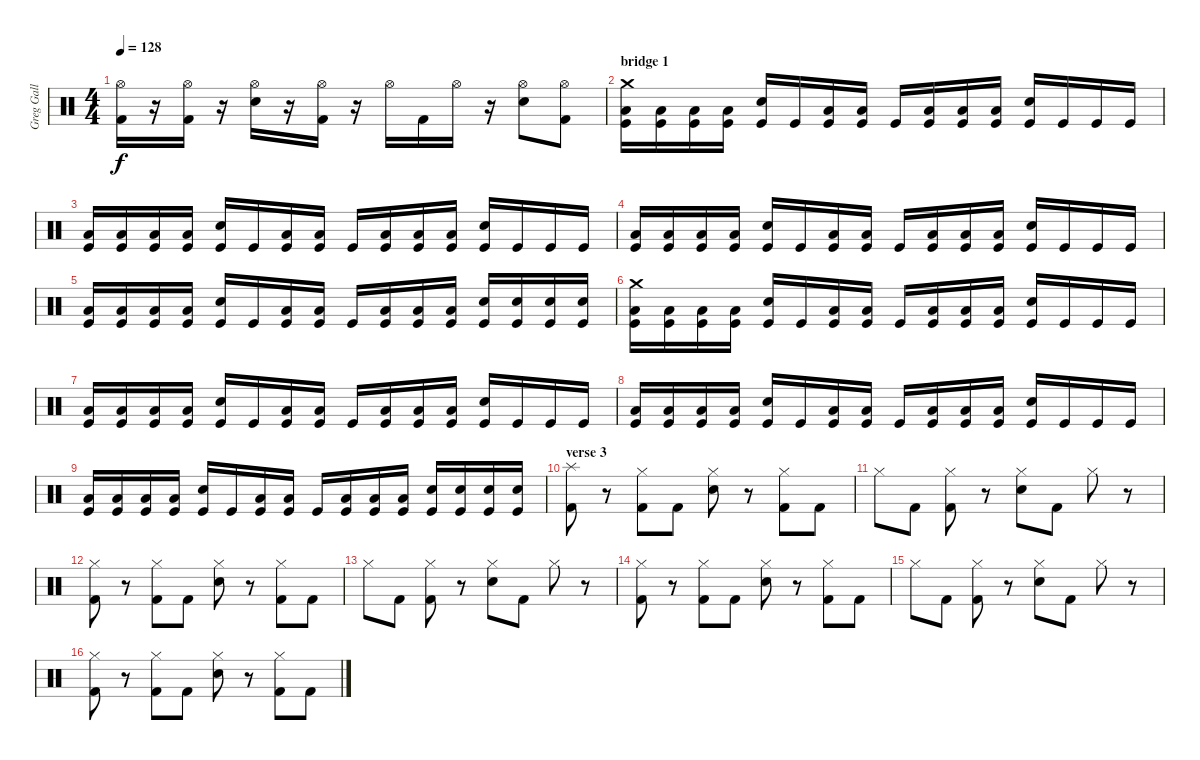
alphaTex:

\track ("Greg Gall" "Greg Gall") {instrument percussion}
\staff {score}
\articulation defaults
\ts (4 4)
\tempo 128
\clef neutral
\ks c
("Hi-Hat (open)" "Kick (hit) 2").16{dy f} r.16 ("Hi-Hat (open)" "Kick (hit) 2").16 r.16 ("Hi-Hat (open)" "Electric Snare (hit)").16 r.16 ("Hi-Hat (open)" "Kick (hit) 2").16 r.16 "Hi-Hat (open)".16 "Kick (hit) 2".16 "Hi-Hat (open)".16 r.16 ("Hi-Hat (open)" "Electric Snare (hit)").8 ("Hi-Hat (open)" "Kick (hit) 2").8 |
\section ("" "bridge 1")
("Crash medium (hit)" "Low Tom (hit)" "Kick (hit)").16 ("Low Tom (hit)" "Kick (hit)").16 ("Low Tom (hit)" "Kick (hit)").16 ("Low Tom (hit)" "Kick (hit)").16 ("Electric Snare (hit)" "Kick (hit)").16 "Kick (hit)".16 ("Low Tom (hit)" "Kick (hit)").16 ("Low Tom (hit)" "Kick (hit)").16 "Kick (hit)".16 ("Low Tom (hit)" "Kick (hit)").16 ("Low Tom (hit)" "Kick (hit)").16 ("Low Tom (hit)" "Kick (hit)").16 ("Electric Snare (hit)" "Kick (hit)").16 "Kick (hit)".16 "Kick (hit)".16 "Kick (hit)".16 |
("Low Tom (hit)" "Kick (hit)").16 ("Low Tom (hit)" "Kick (hit)").16 ("Low Tom (hit)" "Kick (hit)").16 ("Low Tom (hit)" "Kick (hit)").16 ("Electric Snare (hit)" "Kick (hit)").16 "Kick (hit)".16 ("Low Tom (hit)" "Kick (hit)").16 ("Low Tom (hit)" "Kick (hit)").16 "Kick (hit)".16 ("Low Tom (hit)" "Kick (hit)").16 ("Low Tom (hit)" "Kick (hit)").16 ("Low Tom (hit)" "Kick (hit)").16 ("Electric Snare (hit)" "Kick (hit)").16 "Kick (hit)".16 "Kick (hit)".16 "Kick (hit)".16 |
("Low Tom (hit)" "Kick (hit)").16 ("Low Tom (hit)" "Kick (hit)").16 ("Low Tom (hit)" "Kick (hit)").16 ("Low Tom (hit)" "Kick (hit)").16 ("Electric Snare (hit)" "Kick (hit)").16 "Kick (hit)".16 ("Low Tom (hit)" "Kick (hit)").16 ("Low Tom (hit)" "Kick (hit)").16 "Kick (hit)".16 ("Low Tom (hit)" "Kick (hit)").16 ("Low Tom (hit)" "Kick (hit)").16 ("Low Tom (hit)" "Kick (hit)").16 ("Electric Snare (hit)" "Kick (hit)").16 "Kick (hit)".16 "Kick (hit)".16 "Kick (hit)".16 |
("Low Tom (hit)" "Kick (hit)").16 ("Low Tom (hit)" "Kick (hit)").16 ("Low Tom (hit)" "Kick (hit)").16 ("Low Tom (hit)" "Kick (hit)").16 ("Electric Snare (hit)" "Kick (hit)").16 "Kick (hit)".16 ("Low Tom (hit)" "Kick (hit)").16 ("Low Tom (hit)" "Kick (hit)").16 "Kick (hit)".16 ("Low Tom (hit)" "Kick (hit)").16 ("Low Tom (hit)" "Kick (hit)").16 ("Low Tom (hit)" "Kick (hit)").16 ("Electric Snare (hit)" "Kick (hit)").16 ("Electric Snare (hit)" "Kick (hit)").16 ("Electric Snare (hit)" "Kick (hit)").16 ("Electric Snare (hit)" "Kick (hit)").16 |
("Crash medium (hit)" "Low Tom (hit)" "Kick (hit)").16 ("Low Tom (hit)" "Kick (hit)").16 ("Low Tom (hit)" "Kick (hit)").16 ("Low Tom (hit)" "Kick (hit)").16 ("Electric Snare (hit)" "Kick (hit)").16 "Kick (hit)".16 ("Low Tom (hit)" "Kick (hit)").16 ("Low Tom (hit)" "Kick (hit)").16 "Kick (hit)".16 ("Low Tom (hit)" "Kick (hit)").16 ("Low Tom (hit)" "Kick (hit)").16 ("Low Tom (hit)" "Kick (hit)").16 ("Electric Snare (hit)" "Kick (hit)").16 "Kick (hit)".16 "Kick (hit)".16 "Kick (hit)".16 |
("Low Tom (hit)" "Kick (hit)").16 ("Low Tom (hit)" "Kick (hit)").16 ("Low Tom (hit)" "Kick (hit)").16 ("Low Tom (hit)" "Kick (hit)").16 ("Electric Snare (hit)" "Kick (hit)").16 "Kick (hit)".16 ("Low Tom (hit)" "Kick (hit)").16 ("Low Tom (hit)" "Kick (hit)").16 "Kick (hit)".16 ("Low Tom (hit)" "Kick (hit)").16 ("Low Tom (hit)" "Kick (hit)").16 ("Low Tom (hit)" "Kick (hit)").16 ("Electric Snare (hit)" "Kick (hit)").16 "Kick (hit)".16 "Kick (hit)".16 "Kick (hit)".16 |
("Low Tom (hit)" "Kick (hit)").16 ("Low Tom (hit)" "Kick (hit)").16 ("Low Tom (hit)" "Kick (hit)").16 ("Low Tom (hit)" "Kick (hit)").16 ("Electric Snare (hit)" "Kick (hit)").16 "Kick (hit)".16 ("Low Tom (hit)" "Kick (hit)").16 ("Low Tom (hit)" "Kick (hit)").16 "Kick (hit)".16 ("Low Tom (hit)" "Kick (hit)").16 ("Low Tom (hit)" "Kick (hit)").16 ("Low Tom (hit)" "Kick (hit)").16 ("Electric Snare (hit)" "Kick (hit)").16 "Kick (hit)".16 "Kick (hit)".16 "Kick (hit)".16 |
("Low Tom (hit)" "Kick (hit)").16 ("Low Tom (hit)" "Kick (hit)").16 ("Low Tom (hit)" "Kick (hit)").16 ("Low Tom (hit)" "Kick (hit)").16 ("Electric Snare (hit)" "Kick (hit)").16 "Kick (hit)".16 ("Low Tom (hit)" "Kick (hit)").16 ("Low Tom (hit)" "Kick (hit)").16 "Kick (hit)".16 ("Low Tom (hit)" "Kick (hit)").16 ("Low Tom (hit)" "Kick (hit)").16 ("Low Tom (hit)" "Kick (hit)").16 ("Electric Snare (hit)" "Kick (hit)").16 ("Electric Snare (hit)" "Kick (hit)").16 ("Electric Snare (hit)" "Kick (hit)").16 ("Electric Snare (hit)" "Kick (hit)").16 |
\section ("" "verse 3")
("Splash (hit)" "Kick (hit) 2").8 r.8 ("Hi-Hat (closed)" "Kick (hit) 2").8 "Kick (hit) 2".8 ("Hi-Hat (closed)" "Electric Snare (hit)").8 r.8 ("Hi-Hat (closed)" "Kick (hit) 2").8 "Kick (hit) 2".8 |
"Hi-Hat (closed)".8 "Kick (hit) 2".8 ("Hi-Hat (closed)" "Kick (hit) 2").8 r.8 ("Hi-Hat (closed)" "Electric Snare (hit)").8 "Kick (hit) 2".8 "Hi-Hat (closed)".8 r.8 |
("Hi-Hat (closed)" "Kick (hit) 2").8 r.8 ("Hi-Hat (closed)" "Kick (hit) 2").8 "Kick (hit) 2".8 ("Hi-Hat (closed)" "Electric Snare (hit)").8 r.8 ("Hi-Hat (closed)" "Kick (hit) 2").8 "Kick (hit) 2".8 |
"Hi-Hat (closed)".8 "Kick (hit) 2".8 ("Hi-Hat (closed)" "Kick (hit) 2").8 r.8 ("Hi-Hat (closed)" "Electric Snare (hit)").8 "Kick (hit) 2".8 "Hi-Hat (closed)".8 r.8 |
("Hi-Hat (closed)" "Kick (hit) 2").8 r.8 ("Hi-Hat (closed)" "Kick (hit) 2").8 "Kick (hit) 2".8 ("Hi-Hat (closed)" "Electric Snare (hit)").8 r.8 ("Hi-Hat (closed)" "Kick (hit) 2").8 "Kick (hit) 2".8 |
"Hi-Hat (closed)".8 "Kick (hit) 2".8 ("Hi-Hat (closed)" "Kick (hit) 2").8 r.8 ("Hi-Hat (closed)" "Electric Snare (hit)").8 "Kick (hit) 2".8 "Hi-Hat (closed)".8 r.8 |
("Hi-Hat (closed)" "Kick (hit) 2").8 r.8 ("Hi-Hat (closed)" "Kick (hit) 2").8 "Kick (hit) 2".8 ("Hi-Hat (closed)" "Electric Snare (hit)").8 r.8 ("Hi-Hat (closed)" "Kick (hit) 2").8 "Kick (hit) 2".8
